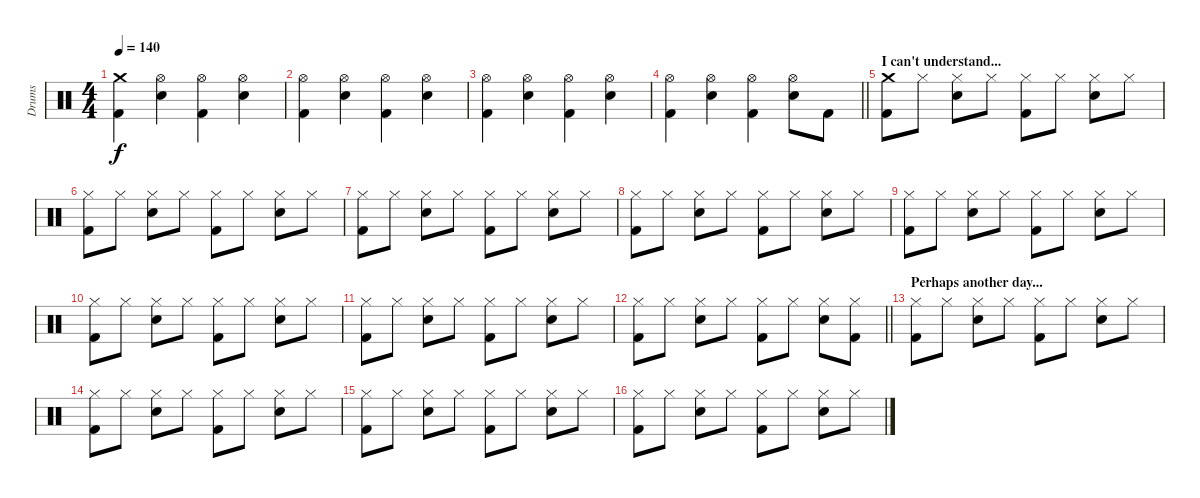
\track ("Drums" "Drums") {instrument percussion}
\staff {score}
\articulation defaults
\ts (4 4)
\tempo 140
\clef neutral
\ks c
("Crash medium (hit)" "Kick (hit) 2").4{dy f} ("Hi-Hat (open)" "Electric Snare (hit)").4 ("Hi-Hat (open)" "Kick (hit) 2").4 ("Hi-Hat (open)" "Electric Snare (hit)").4 |
("Hi-Hat (open)" "Kick (hit) 2").4 ("Hi-Hat (open)" "Electric Snare (hit)").4 ("Hi-Hat (open)" "Kick (hit) 2").4 ("Hi-Hat (open)" "Electric Snare (hit)").4 |
("Hi-Hat (open)" "Kick (hit) 2").4 ("Hi-Hat (open)" "Electric Snare (hit)").4 ("Hi-Hat (open)" "Kick (hit) 2").4 ("Hi-Hat (open)" "Electric Snare (hit)").4 |
\barLineRight lightlight
("Hi-Hat (open)" "Kick (hit) 2").4 ("Hi-Hat (open)" "Electric Snare (hit)").4 ("Hi-Hat (open)" "Kick (hit) 2").4 ("Hi-Hat (open)" "Electric Snare (hit)").8 "Kick (hit) 2".8 |
\section ("" "I can't understand...")
("Crash medium (hit)" "Kick (hit) 2").8 "Hi-Hat (closed)".8 ("Hi-Hat (closed)" "Electric Snare (hit)").8 "Hi-Hat (closed)".8 ("Hi-Hat (closed)" "Kick (hit) 2").8 "Hi-Hat (closed)".8 ("Hi-Hat (closed)" "Electric Snare (hit)").8 "Hi-Hat (closed)".8 |
("Hi-Hat (closed)" "Kick (hit) 2").8 "Hi-Hat (closed)".8 ("Hi-Hat (closed)" "Electric Snare (hit)").8 "Hi-Hat (closed)".8 ("Hi-Hat (closed)" "Kick (hit) 2").8 "Hi-Hat (closed)".8 ("Hi-Hat (closed)" "Electric Snare (hit)").8 "Hi-Hat (closed)".8 |
("Hi-Hat (closed)" "Kick (hit) 2").8 "Hi-Hat (closed)".8 ("Hi-Hat (closed)" "Electric Snare (hit)").8 "Hi-Hat (closed)".8 ("Hi-Hat (closed)" "Kick (hit) 2").8 "Hi-Hat (closed)".8 ("Hi-Hat (closed)" "Electric Snare (hit)").8 "Hi-Hat (closed)".8 |
("Hi-Hat (closed)" "Kick (hit) 2").8 "Hi-Hat (closed)".8 ("Hi-Hat (closed)" "Electric Snare (hit)").8 "Hi-Hat (closed)".8 ("Hi-Hat (closed)" "Kick (hit) 2").8 "Hi-Hat (closed)".8 ("Hi-Hat (closed)" "Electric Snare (hit)").8 "Hi-Hat (closed)".8 |
("Hi-Hat (closed)" "Kick (hit) 2").8 "Hi-Hat (closed)".8 ("Hi-Hat (closed)" "Electric Snare (hit)").8 "Hi-Hat (closed)".8 ("Hi-Hat (closed)" "Kick (hit) 2").8 "Hi-Hat (closed)".8 ("Hi-Hat (closed)" "Electric Snare (hit)").8 "Hi-Hat (closed)".8 |
("Hi-Hat (closed)" "Kick (hit) 2").8 "Hi-Hat (closed)".8 ("Hi-Hat (closed)" "Electric Snare (hit)").8 "Hi-Hat (closed)".8 ("Hi-Hat (closed)" "Kick (hit) 2").8 "Hi-Hat (closed)".8 ("Hi-Hat (closed)" "Electric Snare (hit)").8 "Hi-Hat (closed)".8 |
("Hi-Hat (closed)" "Kick (hit) 2").8 "Hi-Hat (closed)".8 ("Hi-Hat (closed)" "Electric Snare (hit)").8 "Hi-Hat (closed)".8 ("Hi-Hat (closed)" "Kick (hit) 2").8 "Hi-Hat (closed)".8 ("Hi-Hat (closed)" "Electric Snare (hit)").8 "Hi-Hat (closed)".8 |
\barLineRight lightlight
("Hi-Hat (closed)" "Kick (hit) 2").8 "Hi-Hat (closed)".8 ("Hi-Hat (closed)" "Electric Snare (hit)").8 "Hi-Hat (closed)".8 ("Hi-Hat (closed)" "Kick (hit) 2").8 "Hi-Hat (closed)".8 ("Hi-Hat (closed)" "Electric Snare (hit)").8 ("Hi-Hat (closed)" "Kick (hit) 2").8 |
\section ("" "Perhaps another day...")
("Hi-Hat (closed)" "Kick (hit) 2").8 "Hi-Hat (closed)".8 ("Hi-Hat (closed)" "Electric Snare (hit)").8 "Hi-Hat (closed)".8 ("Hi-Hat (closed)" "Kick (hit) 2").8 "Hi-Hat (closed)".8 ("Hi-Hat (closed)" "Electric Snare (hit)").8 "Hi-Hat (closed)".8 |
("Hi-Hat (closed)" "Kick (hit) 2").8 "Hi-Hat (closed)".8 ("Hi-Hat (closed)" "Electric Snare (hit)").8 "Hi-Hat (closed)".8 ("Hi-Hat (closed)" "Kick (hit) 2").8 "Hi-Hat (closed)".8 ("Hi-Hat (closed)" "Electric Snare (hit)").8 "Hi-Hat (closed)".8 |
("Hi-Hat (closed)" "Kick (hit) 2").8 "Hi-Hat (closed)".8 ("Hi-Hat (closed)" "Electric Snare (hit)").8 "Hi-Hat (closed)".8 ("Hi-Hat (closed)" "Kick (hit) 2").8 "Hi-Hat (closed)".8 ("Hi-Hat (closed)" "Electric Snare (hit)").8 "Hi-Hat (closed)".8 |
("Hi-Hat (closed)" "Kick (hit) 2").8 "Hi-Hat (closed)".8 ("Hi-Hat (closed)" "Electric Snare (hit)").8 "Hi-Hat (closed)".8 ("Hi-Hat (closed)" "Kick (hit) 2").8 "Hi-Hat (closed)".8 ("Hi-Hat (closed)" "Electric Snare (hit)").8 "Hi-Hat (closed)".8
